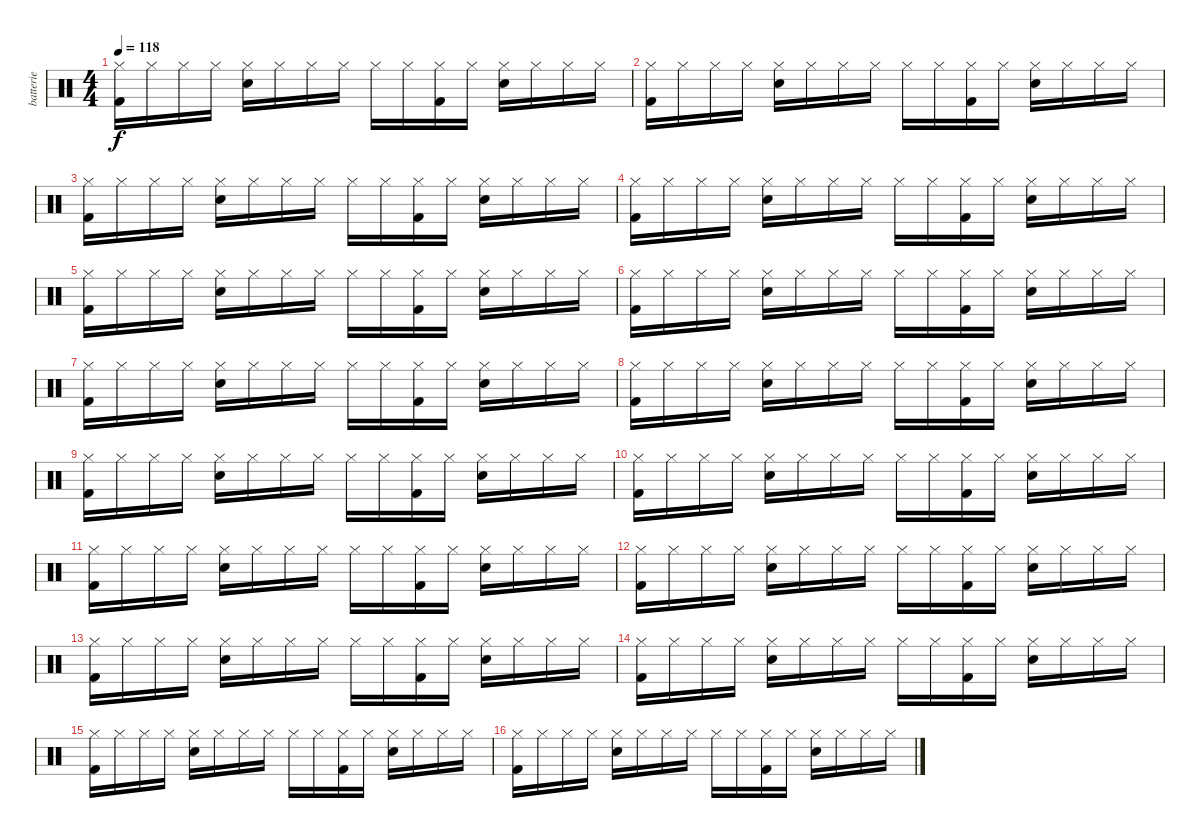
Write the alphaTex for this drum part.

\track ("batterie" "batterie") {instrument percussion}
\staff {score}
\articulation defaults
\ts (4 4)
\tempo 118
\clef neutral
\ks c
("Hi-Hat (closed)" "Kick (hit) 2").16{dy f} "Hi-Hat (closed)".16 "Hi-Hat (closed)".16 "Hi-Hat (closed)".16 ("Hi-Hat (closed)" "Electric Snare (hit)").16 "Hi-Hat (closed)".16 "Hi-Hat (closed)".16 "Hi-Hat (closed)".16 "Hi-Hat (closed)".16 "Hi-Hat (closed)".16 ("Hi-Hat (closed)" "Kick (hit) 2").16 "Hi-Hat (closed)".16 ("Hi-Hat (closed)" "Electric Snare (hit)").16 "Hi-Hat (closed)".16 "Hi-Hat (closed)".16 "Hi-Hat (closed)".16 |
("Hi-Hat (closed)" "Kick (hit) 2").16 "Hi-Hat (closed)".16 "Hi-Hat (closed)".16 "Hi-Hat (closed)".16 ("Hi-Hat (closed)" "Electric Snare (hit)").16 "Hi-Hat (closed)".16 "Hi-Hat (closed)".16 "Hi-Hat (closed)".16 "Hi-Hat (closed)".16 "Hi-Hat (closed)".16 ("Hi-Hat (closed)" "Kick (hit) 2").16 "Hi-Hat (closed)".16 ("Hi-Hat (closed)" "Electric Snare (hit)").16 "Hi-Hat (closed)".16 "Hi-Hat (closed)".16 "Hi-Hat (closed)".16 |
("Hi-Hat (closed)" "Kick (hit) 2").16 "Hi-Hat (closed)".16 "Hi-Hat (closed)".16 "Hi-Hat (closed)".16 ("Hi-Hat (closed)" "Electric Snare (hit)").16 "Hi-Hat (closed)".16 "Hi-Hat (closed)".16 "Hi-Hat (closed)".16 "Hi-Hat (closed)".16 "Hi-Hat (closed)".16 ("Hi-Hat (closed)" "Kick (hit) 2").16 "Hi-Hat (closed)".16 ("Hi-Hat (closed)" "Electric Snare (hit)").16 "Hi-Hat (closed)".16 "Hi-Hat (closed)".16 "Hi-Hat (closed)".16 |
("Hi-Hat (closed)" "Kick (hit) 2").16 "Hi-Hat (closed)".16 "Hi-Hat (closed)".16 "Hi-Hat (closed)".16 ("Hi-Hat (closed)" "Electric Snare (hit)").16 "Hi-Hat (closed)".16 "Hi-Hat (closed)".16 "Hi-Hat (closed)".16 "Hi-Hat (closed)".16 "Hi-Hat (closed)".16 ("Hi-Hat (closed)" "Kick (hit) 2").16 "Hi-Hat (closed)".16 ("Hi-Hat (closed)" "Electric Snare (hit)").16 "Hi-Hat (closed)".16 "Hi-Hat (closed)".16 "Hi-Hat (closed)".16 |
("Hi-Hat (closed)" "Kick (hit) 2").16 "Hi-Hat (closed)".16 "Hi-Hat (closed)".16 "Hi-Hat (closed)".16 ("Hi-Hat (closed)" "Electric Snare (hit)").16 "Hi-Hat (closed)".16 "Hi-Hat (closed)".16 "Hi-Hat (closed)".16 "Hi-Hat (closed)".16 "Hi-Hat (closed)".16 ("Hi-Hat (closed)" "Kick (hit) 2").16 "Hi-Hat (closed)".16 ("Hi-Hat (closed)" "Electric Snare (hit)").16 "Hi-Hat (closed)".16 "Hi-Hat (closed)".16 "Hi-Hat (closed)".16 |
("Hi-Hat (closed)" "Kick (hit) 2").16 "Hi-Hat (closed)".16 "Hi-Hat (closed)".16 "Hi-Hat (closed)".16 ("Hi-Hat (closed)" "Electric Snare (hit)").16 "Hi-Hat (closed)".16 "Hi-Hat (closed)".16 "Hi-Hat (closed)".16 "Hi-Hat (closed)".16 "Hi-Hat (closed)".16 ("Hi-Hat (closed)" "Kick (hit) 2").16 "Hi-Hat (closed)".16 ("Hi-Hat (closed)" "Electric Snare (hit)").16 "Hi-Hat (closed)".16 "Hi-Hat (closed)".16 "Hi-Hat (closed)".16 |
("Hi-Hat (closed)" "Kick (hit) 2").16 "Hi-Hat (closed)".16 "Hi-Hat (closed)".16 "Hi-Hat (closed)".16 ("Hi-Hat (closed)" "Electric Snare (hit)").16 "Hi-Hat (closed)".16 "Hi-Hat (closed)".16 "Hi-Hat (closed)".16 "Hi-Hat (closed)".16 "Hi-Hat (closed)".16 ("Hi-Hat (closed)" "Kick (hit) 2").16 "Hi-Hat (closed)".16 ("Hi-Hat (closed)" "Electric Snare (hit)").16 "Hi-Hat (closed)".16 "Hi-Hat (closed)".16 "Hi-Hat (closed)".16 |
("Hi-Hat (closed)" "Kick (hit) 2").16 "Hi-Hat (closed)".16 "Hi-Hat (closed)".16 "Hi-Hat (closed)".16 ("Hi-Hat (closed)" "Electric Snare (hit)").16 "Hi-Hat (closed)".16 "Hi-Hat (closed)".16 "Hi-Hat (closed)".16 "Hi-Hat (closed)".16 "Hi-Hat (closed)".16 ("Hi-Hat (closed)" "Kick (hit) 2").16 "Hi-Hat (closed)".16 ("Hi-Hat (closed)" "Electric Snare (hit)").16 "Hi-Hat (closed)".16 "Hi-Hat (closed)".16 "Hi-Hat (closed)".16 |
("Hi-Hat (closed)" "Kick (hit) 2").16 "Hi-Hat (closed)".16 "Hi-Hat (closed)".16 "Hi-Hat (closed)".16 ("Hi-Hat (closed)" "Electric Snare (hit)").16 "Hi-Hat (closed)".16 "Hi-Hat (closed)".16 "Hi-Hat (closed)".16 "Hi-Hat (closed)".16 "Hi-Hat (closed)".16 ("Hi-Hat (closed)" "Kick (hit) 2").16 "Hi-Hat (closed)".16 ("Hi-Hat (closed)" "Electric Snare (hit)").16 "Hi-Hat (closed)".16 "Hi-Hat (closed)".16 "Hi-Hat (closed)".16 |
("Hi-Hat (closed)" "Kick (hit) 2").16 "Hi-Hat (closed)".16 "Hi-Hat (closed)".16 "Hi-Hat (closed)".16 ("Hi-Hat (closed)" "Electric Snare (hit)").16 "Hi-Hat (closed)".16 "Hi-Hat (closed)".16 "Hi-Hat (closed)".16 "Hi-Hat (closed)".16 "Hi-Hat (closed)".16 ("Hi-Hat (closed)" "Kick (hit) 2").16 "Hi-Hat (closed)".16 ("Hi-Hat (closed)" "Electric Snare (hit)").16 "Hi-Hat (closed)".16 "Hi-Hat (closed)".16 "Hi-Hat (closed)".16 |
("Hi-Hat (closed)" "Kick (hit) 2").16 "Hi-Hat (closed)".16 "Hi-Hat (closed)".16 "Hi-Hat (closed)".16 ("Hi-Hat (closed)" "Electric Snare (hit)").16 "Hi-Hat (closed)".16 "Hi-Hat (closed)".16 "Hi-Hat (closed)".16 "Hi-Hat (closed)".16 "Hi-Hat (closed)".16 ("Hi-Hat (closed)" "Kick (hit) 2").16 "Hi-Hat (closed)".16 ("Hi-Hat (closed)" "Electric Snare (hit)").16 "Hi-Hat (closed)".16 "Hi-Hat (closed)".16 "Hi-Hat (closed)".16 |
("Hi-Hat (closed)" "Kick (hit) 2").16 "Hi-Hat (closed)".16 "Hi-Hat (closed)".16 "Hi-Hat (closed)".16 ("Hi-Hat (closed)" "Electric Snare (hit)").16 "Hi-Hat (closed)".16 "Hi-Hat (closed)".16 "Hi-Hat (closed)".16 "Hi-Hat (closed)".16 "Hi-Hat (closed)".16 ("Hi-Hat (closed)" "Kick (hit) 2").16 "Hi-Hat (closed)".16 ("Hi-Hat (closed)" "Electric Snare (hit)").16 "Hi-Hat (closed)".16 "Hi-Hat (closed)".16 "Hi-Hat (closed)".16 |
("Hi-Hat (closed)" "Kick (hit) 2").16 "Hi-Hat (closed)".16 "Hi-Hat (closed)".16 "Hi-Hat (closed)".16 ("Hi-Hat (closed)" "Electric Snare (hit)").16 "Hi-Hat (closed)".16 "Hi-Hat (closed)".16 "Hi-Hat (closed)".16 "Hi-Hat (closed)".16 "Hi-Hat (closed)".16 ("Hi-Hat (closed)" "Kick (hit) 2").16 "Hi-Hat (closed)".16 ("Hi-Hat (closed)" "Electric Snare (hit)").16 "Hi-Hat (closed)".16 "Hi-Hat (closed)".16 "Hi-Hat (closed)".16 |
("Hi-Hat (closed)" "Kick (hit) 2").16 "Hi-Hat (closed)".16 "Hi-Hat (closed)".16 "Hi-Hat (closed)".16 ("Hi-Hat (closed)" "Electric Snare (hit)").16 "Hi-Hat (closed)".16 "Hi-Hat (closed)".16 "Hi-Hat (closed)".16 "Hi-Hat (closed)".16 "Hi-Hat (closed)".16 ("Hi-Hat (closed)" "Kick (hit) 2").16 "Hi-Hat (closed)".16 ("Hi-Hat (closed)" "Electric Snare (hit)").16 "Hi-Hat (closed)".16 "Hi-Hat (closed)".16 "Hi-Hat (closed)".16 |
("Hi-Hat (closed)" "Kick (hit) 2").16 "Hi-Hat (closed)".16 "Hi-Hat (closed)".16 "Hi-Hat (closed)".16 ("Hi-Hat (closed)" "Electric Snare (hit)").16 "Hi-Hat (closed)".16 "Hi-Hat (closed)".16 "Hi-Hat (closed)".16 "Hi-Hat (closed)".16 "Hi-Hat (closed)".16 ("Hi-Hat (closed)" "Kick (hit) 2").16 "Hi-Hat (closed)".16 ("Hi-Hat (closed)" "Electric Snare (hit)").16 "Hi-Hat (closed)".16 "Hi-Hat (closed)".16 "Hi-Hat (closed)".16 |
("Hi-Hat (closed)" "Kick (hit) 2").16 "Hi-Hat (closed)".16 "Hi-Hat (closed)".16 "Hi-Hat (closed)".16 ("Hi-Hat (closed)" "Electric Snare (hit)").16 "Hi-Hat (closed)".16 "Hi-Hat (closed)".16 "Hi-Hat (closed)".16 "Hi-Hat (closed)".16 "Hi-Hat (closed)".16 ("Hi-Hat (closed)" "Kick (hit) 2").16 "Hi-Hat (closed)".16 ("Hi-Hat (closed)" "Electric Snare (hit)").16 "Hi-Hat (closed)".16 "Hi-Hat (closed)".16 "Hi-Hat (closed)".16
